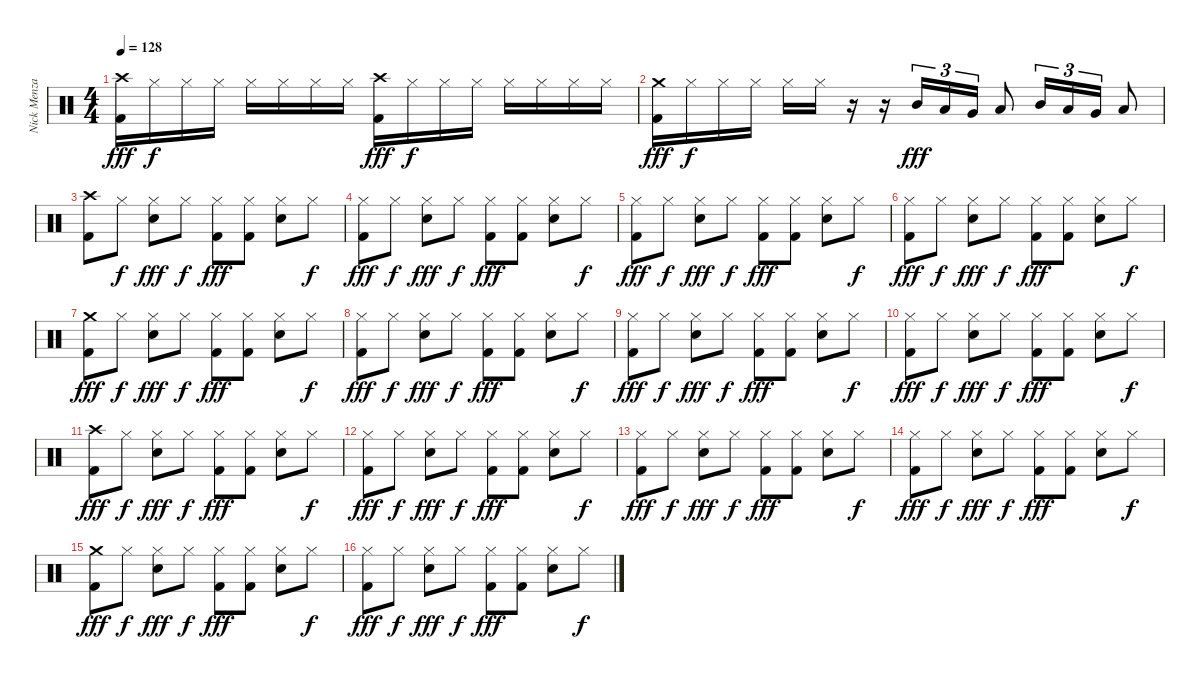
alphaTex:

\track ("Nick Menza" "Nick Menza") {instrument percussion}
\staff {score}
\articulation defaults
\ts (4 4)
\tempo 128
\clef neutral
\ks c
("Crash high (hit)" "Kick (hit) 2").16{dy fff} "Hi-Hat (closed)".16{dy f} "Hi-Hat (closed)".16 "Hi-Hat (closed)".16 "Hi-Hat (closed)".16 "Hi-Hat (closed)".16 "Hi-Hat (closed)".16 "Hi-Hat (closed)".16 ("Crash high (hit)" "Kick (hit) 2").16{dy fff} "Hi-Hat (closed)".16{dy f} "Hi-Hat (closed)".16 "Hi-Hat (closed)".16 "Hi-Hat (closed)".16 "Hi-Hat (closed)".16 "Hi-Hat (closed)".16 "Hi-Hat (closed)".16 |
("Crash medium (hit)" "Kick (hit) 2").16{dy fff} "Hi-Hat (closed)".16{dy f} "Hi-Hat (closed)".16 "Hi-Hat (closed)".16 "Hi-Hat (closed)".16 "Hi-Hat (closed)".16 r.16 r.16 "Mid Tom (hit)".16{tu (3 2) dy fff} "Low Tom (hit)".16{tu (3 2)} "Very Low Tom (hit)".16{tu (3 2)} "Low Floor Tom (hit)".8 "Mid Tom (hit)".16{tu (3 2)} "Low Tom (hit)".16{tu (3 2)} "Very Low Tom (hit)".16{tu (3 2)} "Low Floor Tom (hit)".8 |
("Crash high (hit)" "Kick (hit) 2").8 "Hi-Hat (closed)".8{dy f} ("Hi-Hat (closed)" "Electric Snare (hit)").8{dy fff} "Hi-Hat (closed)".8{dy f} ("Hi-Hat (closed)" "Kick (hit) 2").8{dy fff} ("Hi-Hat (closed)" "Kick (hit) 2").8 ("Hi-Hat (closed)" "Electric Snare (hit)").8 "Hi-Hat (closed)".8{dy f} |
("Hi-Hat (closed)" "Kick (hit) 2").8{dy fff} "Hi-Hat (closed)".8{dy f} ("Hi-Hat (closed)" "Electric Snare (hit)").8{dy fff} "Hi-Hat (closed)".8{dy f} ("Hi-Hat (closed)" "Kick (hit) 2").8{dy fff} ("Hi-Hat (closed)" "Kick (hit) 2").8 ("Hi-Hat (closed)" "Electric Snare (hit)").8 "Hi-Hat (closed)".8{dy f} |
("Hi-Hat (closed)" "Kick (hit) 2").8{dy fff} "Hi-Hat (closed)".8{dy f} ("Hi-Hat (closed)" "Electric Snare (hit)").8{dy fff} "Hi-Hat (closed)".8{dy f} ("Hi-Hat (closed)" "Kick (hit) 2").8{dy fff} ("Hi-Hat (closed)" "Kick (hit) 2").8 ("Hi-Hat (closed)" "Electric Snare (hit)").8 "Hi-Hat (closed)".8{dy f} |
("Hi-Hat (closed)" "Kick (hit) 2").8{dy fff} "Hi-Hat (closed)".8{dy f} ("Hi-Hat (closed)" "Electric Snare (hit)").8{dy fff} "Hi-Hat (closed)".8{dy f} ("Hi-Hat (closed)" "Kick (hit) 2").8{dy fff} ("Hi-Hat (closed)" "Kick (hit) 2").8 ("Hi-Hat (closed)" "Electric Snare (hit)").8 "Hi-Hat (closed)".8{dy f} |
("Crash medium (hit)" "Kick (hit) 2").8{dy fff} "Hi-Hat (closed)".8{dy f} ("Hi-Hat (closed)" "Electric Snare (hit)").8{dy fff} "Hi-Hat (closed)".8{dy f} ("Hi-Hat (closed)" "Kick (hit) 2").8{dy fff} ("Hi-Hat (closed)" "Kick (hit) 2").8 ("Hi-Hat (closed)" "Electric Snare (hit)").8 "Hi-Hat (closed)".8{dy f} |
("Hi-Hat (closed)" "Kick (hit) 2").8{dy fff} "Hi-Hat (closed)".8{dy f} ("Hi-Hat (closed)" "Electric Snare (hit)").8{dy fff} "Hi-Hat (closed)".8{dy f} ("Hi-Hat (closed)" "Kick (hit) 2").8{dy fff} ("Hi-Hat (closed)" "Kick (hit) 2").8 ("Hi-Hat (closed)" "Electric Snare (hit)").8 "Hi-Hat (closed)".8{dy f} |
("Hi-Hat (closed)" "Kick (hit) 2").8{dy fff} "Hi-Hat (closed)".8{dy f} ("Hi-Hat (closed)" "Electric Snare (hit)").8{dy fff} "Hi-Hat (closed)".8{dy f} ("Hi-Hat (closed)" "Kick (hit) 2").8{dy fff} ("Hi-Hat (closed)" "Kick (hit) 2").8 ("Hi-Hat (closed)" "Electric Snare (hit)").8 "Hi-Hat (closed)".8{dy f} |
("Hi-Hat (closed)" "Kick (hit) 2").8{dy fff} "Hi-Hat (closed)".8{dy f} ("Hi-Hat (closed)" "Electric Snare (hit)").8{dy fff} "Hi-Hat (closed)".8{dy f} ("Hi-Hat (closed)" "Kick (hit) 2").8{dy fff} ("Hi-Hat (closed)" "Kick (hit) 2").8 ("Hi-Hat (closed)" "Electric Snare (hit)").8 "Hi-Hat (closed)".8{dy f} |
("Crash high (hit)" "Kick (hit) 2").8{dy fff} "Hi-Hat (closed)".8{dy f} ("Hi-Hat (closed)" "Electric Snare (hit)").8{dy fff} "Hi-Hat (closed)".8{dy f} ("Hi-Hat (closed)" "Kick (hit) 2").8{dy fff} ("Hi-Hat (closed)" "Kick (hit) 2").8 ("Hi-Hat (closed)" "Electric Snare (hit)").8 "Hi-Hat (closed)".8{dy f} |
("Hi-Hat (closed)" "Kick (hit) 2").8{dy fff} "Hi-Hat (closed)".8{dy f} ("Hi-Hat (closed)" "Electric Snare (hit)").8{dy fff} "Hi-Hat (closed)".8{dy f} ("Hi-Hat (closed)" "Kick (hit) 2").8{dy fff} ("Hi-Hat (closed)" "Kick (hit) 2").8 ("Hi-Hat (closed)" "Electric Snare (hit)").8 "Hi-Hat (closed)".8{dy f} |
("Hi-Hat (closed)" "Kick (hit) 2").8{dy fff} "Hi-Hat (closed)".8{dy f} ("Hi-Hat (closed)" "Electric Snare (hit)").8{dy fff} "Hi-Hat (closed)".8{dy f} ("Hi-Hat (closed)" "Kick (hit) 2").8{dy fff} ("Hi-Hat (closed)" "Kick (hit) 2").8 ("Hi-Hat (closed)" "Electric Snare (hit)").8 "Hi-Hat (closed)".8{dy f} |
("Hi-Hat (closed)" "Kick (hit) 2").8{dy fff} "Hi-Hat (closed)".8{dy f} ("Hi-Hat (closed)" "Electric Snare (hit)").8{dy fff} "Hi-Hat (closed)".8{dy f} ("Hi-Hat (closed)" "Kick (hit) 2").8{dy fff} ("Hi-Hat (closed)" "Kick (hit) 2").8 ("Hi-Hat (closed)" "Electric Snare (hit)").8 "Hi-Hat (closed)".8{dy f} |
("Crash medium (hit)" "Kick (hit) 2").8{dy fff} "Hi-Hat (closed)".8{dy f} ("Hi-Hat (closed)" "Electric Snare (hit)").8{dy fff} "Hi-Hat (closed)".8{dy f} ("Hi-Hat (closed)" "Kick (hit) 2").8{dy fff} ("Hi-Hat (closed)" "Kick (hit) 2").8 ("Hi-Hat (closed)" "Electric Snare (hit)").8 "Hi-Hat (closed)".8{dy f} |
("Hi-Hat (closed)" "Kick (hit) 2").8{dy fff} "Hi-Hat (closed)".8{dy f} ("Hi-Hat (closed)" "Electric Snare (hit)").8{dy fff} "Hi-Hat (closed)".8{dy f} ("Hi-Hat (closed)" "Kick (hit) 2").8{dy fff} ("Hi-Hat (closed)" "Kick (hit) 2").8 ("Hi-Hat (closed)" "Electric Snare (hit)").8 "Hi-Hat (closed)".8{dy f}
